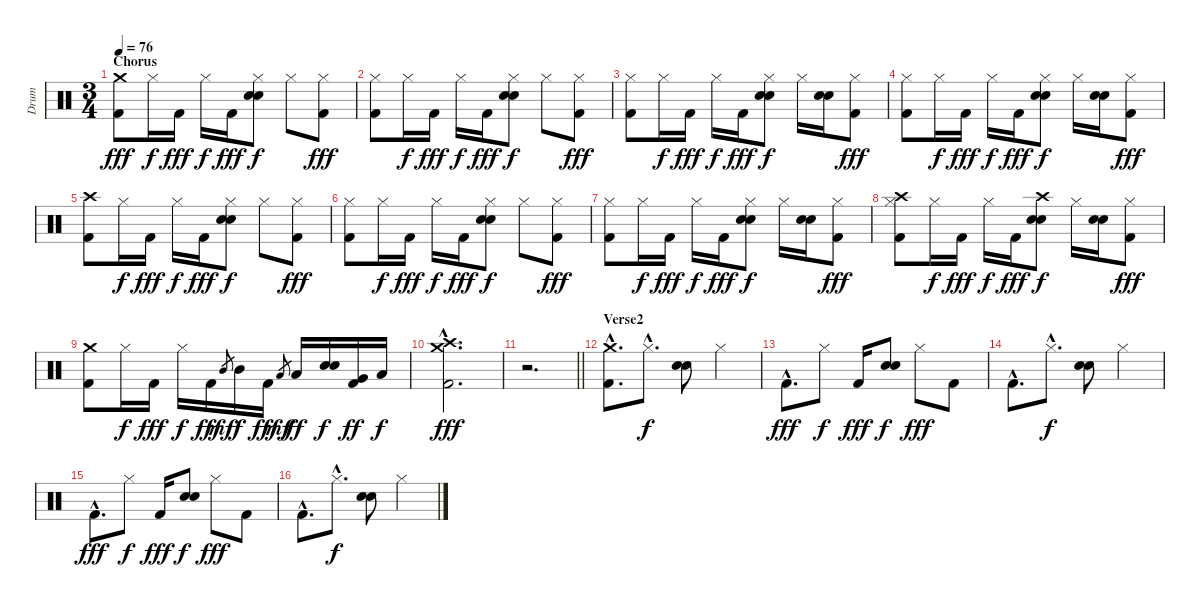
\track ("Drum" "Drum") {instrument percussion}
\staff {score}
\articulation defaults
\ts (3 4)
\section ("" "Chorus")
\tempo 76
\clef neutral
\ks c
("Crash medium (hit)" "Kick (hit) 2").8{dy fff} "Hi-Hat (closed)".16{dy f} "Kick (hit) 2".16{dy fff} "Hi-Hat (closed)".16{dy f} "Kick (hit) 2".16{dy fff} ("Hi-Hat (closed)" "Snare (hit) 2" "Electric Snare (hit)").8{dy f} "Hi-Hat (closed)".8 ("Hi-Hat (closed)" "Kick (hit) 2").8{dy fff} |
("Hi-Hat (closed)" "Kick (hit) 2").8 "Hi-Hat (closed)".16{dy f} "Kick (hit) 2".16{dy fff} "Hi-Hat (closed)".16{dy f} "Kick (hit) 2".16{dy fff} ("Hi-Hat (closed)" "Snare (hit) 2" "Electric Snare (hit)").8{dy f} "Hi-Hat (closed)".8 ("Hi-Hat (closed)" "Kick (hit) 2").8{dy fff} |
("Hi-Hat (closed)" "Kick (hit) 2").8 "Hi-Hat (closed)".16{dy f} "Kick (hit) 2".16{dy fff} "Hi-Hat (closed)".16{dy f} "Kick (hit) 2".16{dy fff} ("Hi-Hat (closed)" "Snare (hit) 2" "Electric Snare (hit)").8{dy f} "Hi-Hat (closed)".16 ("Snare (hit) 2" "Electric Snare (hit)").16 ("Hi-Hat (closed)" "Kick (hit) 2").8{dy fff} |
("Hi-Hat (closed)" "Kick (hit) 2").8 "Hi-Hat (closed)".16{dy f} "Kick (hit) 2".16{dy fff} "Hi-Hat (closed)".16{dy f} "Kick (hit) 2".16{dy fff} ("Hi-Hat (closed)" "Snare (hit) 2" "Electric Snare (hit)").8{dy f} "Hi-Hat (closed)".16 ("Snare (hit) 2" "Electric Snare (hit)").16 ("Hi-Hat (closed)" "Kick (hit) 2").8{dy fff} |
("Crash high (hit)" "Kick (hit) 2").8 "Hi-Hat (closed)".16{dy f} "Kick (hit) 2".16{dy fff} "Hi-Hat (closed)".16{dy f} "Kick (hit) 2".16{dy fff} ("Hi-Hat (closed)" "Snare (hit) 2" "Electric Snare (hit)").8{dy f} "Hi-Hat (closed)".8 ("Hi-Hat (closed)" "Kick (hit) 2").8{dy fff} |
("Hi-Hat (closed)" "Kick (hit) 2").8 "Hi-Hat (closed)".16{dy f} "Kick (hit) 2".16{dy fff} "Hi-Hat (closed)".16{dy f} "Kick (hit) 2".16{dy fff} ("Hi-Hat (closed)" "Snare (hit) 2" "Electric Snare (hit)").8{dy f} "Hi-Hat (closed)".8 ("Hi-Hat (closed)" "Kick (hit) 2").8{dy fff} |
("Hi-Hat (closed)" "Kick (hit) 2").8 "Hi-Hat (closed)".16{dy f} "Kick (hit) 2".16{dy fff} "Hi-Hat (closed)".16{dy f} "Kick (hit) 2".16{dy fff} ("Hi-Hat (closed)" "Snare (hit) 2" "Electric Snare (hit)").8{dy f} "Hi-Hat (closed)".16 ("Snare (hit) 2" "Electric Snare (hit)").16 ("Hi-Hat (closed)" "Kick (hit) 2").8{dy fff} |
("Crash high (hit)" "Hi-Hat (closed)" "Kick (hit) 2").8 "Hi-Hat (closed)".16{dy f} "Kick (hit) 2".16{dy fff} "Hi-Hat (closed)".16{dy f} "Kick (hit) 2".16{dy fff} ("Crash high (hit)" "Snare (hit) 2" "Electric Snare (hit)").8{dy f} "Hi-Hat (closed)".16 ("Snare (hit) 2" "Electric Snare (hit)").16 ("Hi-Hat (closed)" "Kick (hit) 2").8{dy fff} |
("Crash medium (hit)" "Kick (hit) 2").8 "Hi-Hat (closed)".16{dy f} "Kick (hit) 2".16{dy fff} "Hi-Hat (closed)".16{dy f} "Kick (hit) 2".16{dy fff} "Mid Tom (hit)".8{gr dy mf} "Mid Tom (hit)".16{dy f} "Kick (hit) 2".16{dy fff} "Low Tom (hit)".8{gr dy mf} "Low Tom (hit)".16{dy ff} ("Snare (hit) 2" "Electric Snare (hit)").16{dy f} ("Very Low Tom (hit)" "Kick (hit) 2").16{dy ff} "Low Floor Tom (hit)".16{dy f} |
("Crash medium (hit)"{hac} "Crash high (hit)"{hac} "Kick (hit) 2"{hac}).2{d dy fff} |
\barLineRight lightlight
r.2{d} |
\section ("" "Verse2")
("Crash medium (hit)"{hac} "Kick (hit) 2"{hac}).8{d} "Hi-Hat (closed)"{hac}.8{d dy f} ("Electric Snare (hit)" "Snare (hit) 2").8 "Hi-Hat (closed)".4 |
"Kick (hit) 2"{hac}.8{d dy fff} "Hi-Hat (closed)".8{dy f} "Kick (hit) 2".16{dy fff} ("Electric Snare (hit)" "Snare (hit) 2").8{dy f} "Hi-Hat (closed)".8{dy fff} "Kick (hit) 2".8 |
"Kick (hit) 2"{hac}.8{d} "Hi-Hat (closed)"{hac}.8{d dy f} ("Electric Snare (hit)" "Snare (hit) 2").8 "Hi-Hat (closed)".4 |
"Kick (hit) 2"{hac}.8{d dy fff} "Hi-Hat (closed)".8{dy f} "Kick (hit) 2".16{dy fff} ("Electric Snare (hit)" "Snare (hit) 2").8{dy f} "Hi-Hat (closed)".8{dy fff} "Kick (hit) 2".8 |
"Kick (hit) 2"{hac}.8{d} "Hi-Hat (closed)"{hac}.8{d dy f} ("Electric Snare (hit)" "Snare (hit) 2").8 "Hi-Hat (closed)".4
